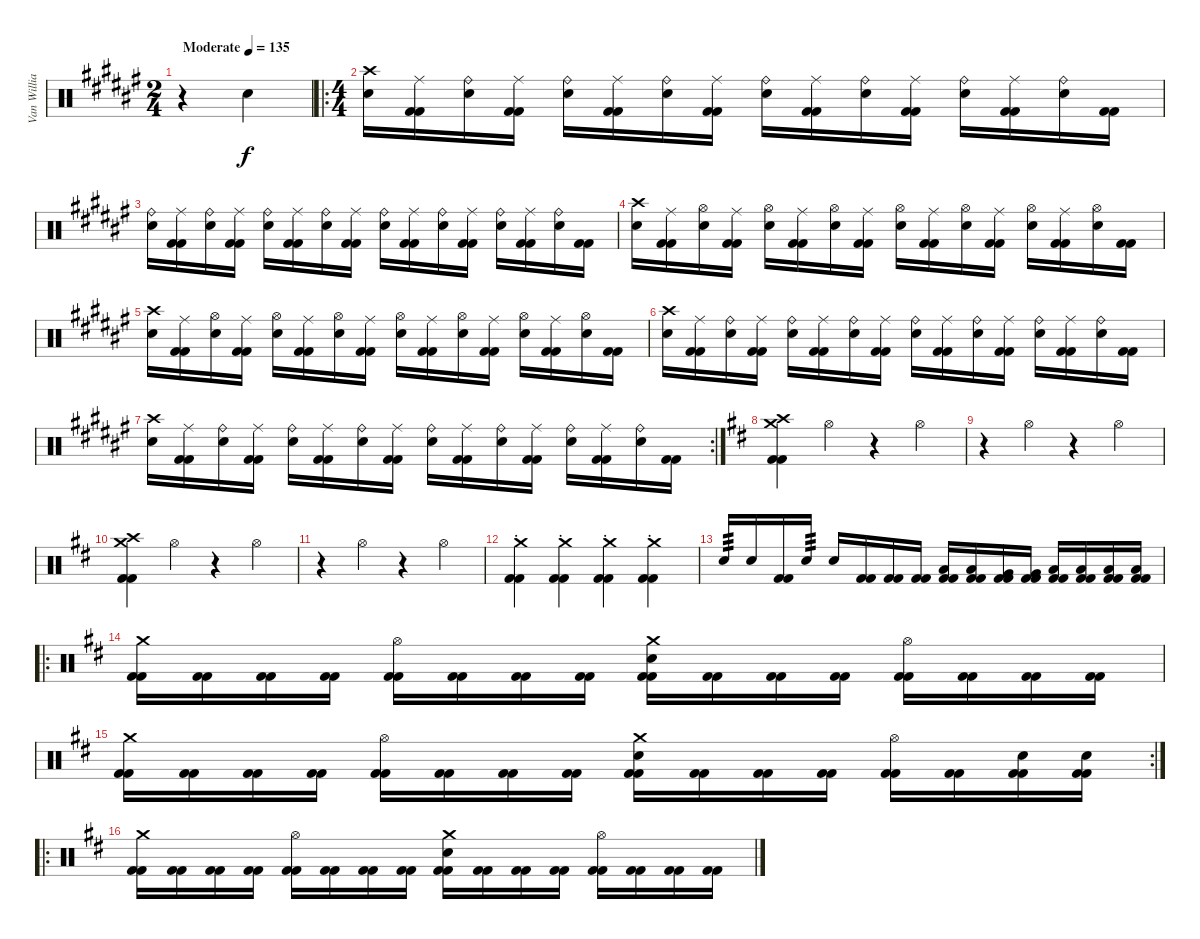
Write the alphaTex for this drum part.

\track ("Van Williams" "Van Willia") {instrument percussion}
\staff {score}
\articulation defaults
\ts (2 4)
\tempo (135 "Moderate")
\clef neutral
\ks f#
r.4{dy f} "Electric Snare (hit)".4 |
\ro
\ts (4 4)
("Crash high (hit)" "Electric Snare (hit)").16 ("Ride (middle)" "Kick (hit) 2" "Kick (hit) 2").16 ("Ride (bell)" "Electric Snare (hit)").16 ("Ride (middle)" "Kick (hit) 2" "Kick (hit) 2").16 ("Ride (bell)" "Electric Snare (hit)").16 ("Ride (middle)" "Kick (hit) 2" "Kick (hit) 2").16 ("Ride (bell)" "Electric Snare (hit)").16 ("Ride (middle)" "Kick (hit) 2" "Kick (hit) 2").16 ("Ride (bell)" "Electric Snare (hit)").16 ("Ride (middle)" "Kick (hit) 2" "Kick (hit) 2").16 ("Ride (bell)" "Electric Snare (hit)").16 ("Ride (middle)" "Kick (hit) 2" "Kick (hit) 2").16 ("Ride (bell)" "Electric Snare (hit)").16 ("Ride (middle)" "Kick (hit) 2" "Kick (hit) 2").16 ("Ride (bell)" "Electric Snare (hit)").16 ("Kick (hit) 2" "Kick (hit) 2").16 |
("Ride (bell)" "Electric Snare (hit)").16 ("Ride (middle)" "Kick (hit) 2" "Kick (hit) 2").16 ("Ride (bell)" "Electric Snare (hit)").16 ("Ride (middle)" "Kick (hit) 2" "Kick (hit) 2").16 ("Ride (bell)" "Electric Snare (hit)").16 ("Ride (middle)" "Kick (hit) 2" "Kick (hit) 2").16 ("Ride (bell)" "Electric Snare (hit)").16 ("Ride (middle)" "Kick (hit) 2" "Kick (hit) 2").16 ("Ride (bell)" "Electric Snare (hit)").16 ("Ride (middle)" "Kick (hit) 2" "Kick (hit) 2").16 ("Ride (bell)" "Electric Snare (hit)").16 ("Ride (middle)" "Kick (hit) 2" "Kick (hit) 2").16 ("Ride (bell)" "Electric Snare (hit)").16 ("Ride (middle)" "Kick (hit) 2" "Kick (hit) 2").16 ("Ride (bell)" "Electric Snare (hit)").16 ("Kick (hit) 2" "Kick (hit) 2").16 |
("Crash high (hit)" "Electric Snare (hit)").16 ("Ride (middle)" "Kick (hit) 2" "Kick (hit) 2").16 ("Hi-Hat (open)" "Electric Snare (hit)").16 ("Ride (middle)" "Kick (hit) 2" "Kick (hit) 2").16 ("Hi-Hat (open)" "Electric Snare (hit)").16 ("Ride (middle)" "Kick (hit) 2" "Kick (hit) 2").16 ("Hi-Hat (open)" "Electric Snare (hit)").16 ("Ride (middle)" "Kick (hit) 2" "Kick (hit) 2").16 ("Hi-Hat (open)" "Electric Snare (hit)").16 ("Ride (middle)" "Kick (hit) 2" "Kick (hit) 2").16 ("Hi-Hat (open)" "Electric Snare (hit)").16 ("Ride (middle)" "Kick (hit) 2" "Kick (hit) 2").16 ("Hi-Hat (open)" "Electric Snare (hit)").16 ("Ride (middle)" "Kick (hit) 2" "Kick (hit) 2").16 ("Hi-Hat (open)" "Electric Snare (hit)").16 ("Kick (hit) 2" "Kick (hit) 2").16 |
("Crash high (hit)" "Electric Snare (hit)").16 ("Ride (middle)" "Kick (hit) 2" "Kick (hit) 2").16 ("Hi-Hat (open)" "Electric Snare (hit)").16 ("Ride (middle)" "Kick (hit) 2" "Kick (hit) 2").16 ("Hi-Hat (open)" "Electric Snare (hit)").16 ("Ride (middle)" "Kick (hit) 2" "Kick (hit) 2").16 ("Hi-Hat (open)" "Electric Snare (hit)").16 ("Ride (middle)" "Kick (hit) 2" "Kick (hit) 2").16 ("Hi-Hat (open)" "Electric Snare (hit)").16 ("Ride (middle)" "Kick (hit) 2" "Kick (hit) 2").16 ("Hi-Hat (open)" "Electric Snare (hit)").16 ("Ride (middle)" "Kick (hit) 2" "Kick (hit) 2").16 ("Hi-Hat (open)" "Electric Snare (hit)").16 ("Ride (middle)" "Kick (hit) 2" "Kick (hit) 2").16 ("Hi-Hat (open)" "Electric Snare (hit)").16 ("Kick (hit) 2" "Kick (hit) 2").16 |
("Crash high (hit)" "Electric Snare (hit)").16 ("Ride (middle)" "Kick (hit) 2" "Kick (hit) 2").16 ("Ride (bell)" "Electric Snare (hit)").16 ("Ride (middle)" "Kick (hit) 2" "Kick (hit) 2").16 ("Ride (bell)" "Electric Snare (hit)").16 ("Ride (middle)" "Kick (hit) 2" "Kick (hit) 2").16 ("Ride (bell)" "Electric Snare (hit)").16 ("Ride (middle)" "Kick (hit) 2" "Kick (hit) 2").16 ("Ride (bell)" "Electric Snare (hit)").16 ("Ride (middle)" "Kick (hit) 2" "Kick (hit) 2").16 ("Ride (bell)" "Electric Snare (hit)").16 ("Ride (middle)" "Kick (hit) 2" "Kick (hit) 2").16 ("Ride (bell)" "Electric Snare (hit)").16 ("Ride (middle)" "Kick (hit) 2" "Kick (hit) 2").16 ("Ride (bell)" "Electric Snare (hit)").16 ("Kick (hit) 2" "Kick (hit) 2").16 |
\rc 2
("Crash high (hit)" "Electric Snare (hit)").16 ("Ride (middle)" "Kick (hit) 2" "Kick (hit) 2").16 ("Ride (bell)" "Electric Snare (hit)").16 ("Ride (middle)" "Kick (hit) 2" "Kick (hit) 2").16 ("Ride (bell)" "Electric Snare (hit)").16 ("Ride (middle)" "Kick (hit) 2" "Kick (hit) 2").16 ("Ride (bell)" "Electric Snare (hit)").16 ("Ride (middle)" "Kick (hit) 2" "Kick (hit) 2").16 ("Ride (bell)" "Electric Snare (hit)").16 ("Ride (middle)" "Kick (hit) 2" "Kick (hit) 2").16 ("Ride (bell)" "Electric Snare (hit)").16 ("Ride (middle)" "Kick (hit) 2" "Kick (hit) 2").16 ("Ride (bell)" "Electric Snare (hit)").16 ("Ride (middle)" "Kick (hit) 2" "Kick (hit) 2").16 ("Ride (bell)" "Electric Snare (hit)").16 ("Kick (hit) 2" "Kick (hit) 2").16 |
\ks d
("Crash medium (hit)" "Crash high (hit)" "Kick (hit) 2" "Kick (hit) 2").4 "Hi-Hat (open)".4 r.4 "Hi-Hat (open)".4 |
r.4 "Hi-Hat (open)".4 r.4 "Hi-Hat (open)".4 |
("Crash medium (hit)" "Crash high (hit)" "Kick (hit) 2" "Kick (hit) 2").4 "Hi-Hat (open)".4 r.4 "Hi-Hat (open)".4 |
r.4 "Hi-Hat (open)".4 r.4 "Hi-Hat (open)".4 |
("Crash medium (hit)"{st} "Kick (hit) 2" "Kick (hit) 2").4 ("Crash medium (hit)"{st} "Kick (hit) 2" "Kick (hit) 2").4 ("Crash medium (hit)"{st} "Kick (hit) 2" "Kick (hit) 2").4 ("Crash medium (hit)"{st} "Kick (hit) 2" "Kick (hit) 2").4 |
"Electric Snare (hit)".16{tp 3} "Electric Snare (hit)".16 ("Kick (hit) 2" "Kick (hit) 2").16 "Electric Snare (hit)".16{tp 3} "Electric Snare (hit)".16 ("Kick (hit) 2" "Kick (hit) 2").16 ("Kick (hit) 2" "Kick (hit) 2").16 ("Kick (hit) 2" "Kick (hit) 2").16 ("Low Tom (hit)" "Kick (hit) 2" "Kick (hit) 2").16 ("Low Tom (hit)" "Kick (hit) 2" "Kick (hit) 2").16 ("Very Low Tom (hit)" "Kick (hit) 2" "Kick (hit) 2").16 ("Very Low Tom (hit)" "Kick (hit) 2" "Kick (hit) 2").16 ("Low Tom (hit)" "Kick (hit) 2" "Kick (hit) 2").16 ("Low Tom (hit)" "Kick (hit) 2" "Kick (hit) 2").16 ("Low Floor Tom (hit)" "Kick (hit) 2" "Kick (hit) 2").16 ("Low Floor Tom (hit)" "Kick (hit) 2" "Kick (hit) 2").16 |
\ro
("Crash medium (hit)" "Kick (hit) 2" "Kick (hit) 2").16 ("Kick (hit) 2" "Kick (hit) 2").16 ("Kick (hit) 2" "Kick (hit) 2").16 ("Kick (hit) 2" "Kick (hit) 2").16 ("Hi-Hat (open)" "Kick (hit) 2" "Kick (hit) 2").16 ("Kick (hit) 2" "Kick (hit) 2").16 ("Kick (hit) 2" "Kick (hit) 2").16 ("Kick (hit) 2" "Kick (hit) 2").16 ("Crash medium (hit)" "Electric Snare (hit)" "Kick (hit) 2" "Kick (hit) 2").16 ("Kick (hit) 2" "Kick (hit) 2").16 ("Kick (hit) 2" "Kick (hit) 2").16 ("Kick (hit) 2" "Kick (hit) 2").16 ("Hi-Hat (open)" "Kick (hit) 2" "Kick (hit) 2").16 ("Kick (hit) 2" "Kick (hit) 2").16 ("Kick (hit) 2" "Kick (hit) 2").16 ("Kick (hit) 2" "Kick (hit) 2").16 |
\rc 2
("Crash medium (hit)" "Kick (hit) 2" "Kick (hit) 2").16 ("Kick (hit) 2" "Kick (hit) 2").16 ("Kick (hit) 2" "Kick (hit) 2").16 ("Kick (hit) 2" "Kick (hit) 2").16 ("Hi-Hat (open)" "Kick (hit) 2" "Kick (hit) 2").16 ("Kick (hit) 2" "Kick (hit) 2").16 ("Kick (hit) 2" "Kick (hit) 2").16 ("Kick (hit) 2" "Kick (hit) 2").16 ("Crash medium (hit)" "Electric Snare (hit)" "Kick (hit) 2" "Kick (hit) 2").16 ("Kick (hit) 2" "Kick (hit) 2").16 ("Kick (hit) 2" "Kick (hit) 2").16 ("Kick (hit) 2" "Kick (hit) 2").16 ("Hi-Hat (open)" "Kick (hit) 2" "Kick (hit) 2").16 ("Kick (hit) 2" "Kick (hit) 2").16 ("Electric Snare (hit)" "Kick (hit) 2" "Kick (hit) 2").16 ("Electric Snare (hit)" "Kick (hit) 2" "Kick (hit) 2").16 |
\ro
("Crash medium (hit)" "Kick (hit) 2" "Kick (hit) 2").16 ("Kick (hit) 2" "Kick (hit) 2").16 ("Kick (hit) 2" "Kick (hit) 2").16 ("Kick (hit) 2" "Kick (hit) 2").16 ("Hi-Hat (open)" "Kick (hit) 2" "Kick (hit) 2").16 ("Kick (hit) 2" "Kick (hit) 2").16 ("Kick (hit) 2" "Kick (hit) 2").16 ("Kick (hit) 2" "Kick (hit) 2").16 ("Crash medium (hit)" "Electric Snare (hit)" "Kick (hit) 2" "Kick (hit) 2").16 ("Kick (hit) 2" "Kick (hit) 2").16 ("Kick (hit) 2" "Kick (hit) 2").16 ("Kick (hit) 2" "Kick (hit) 2").16 ("Hi-Hat (open)" "Kick (hit) 2" "Kick (hit) 2").16 ("Kick (hit) 2" "Kick (hit) 2").16 ("Kick (hit) 2" "Kick (hit) 2").16 ("Kick (hit) 2" "Kick (hit) 2").16
